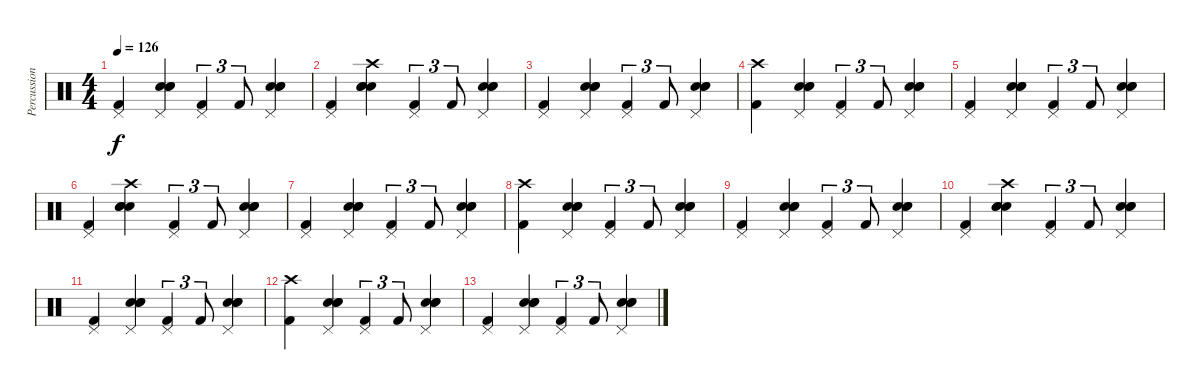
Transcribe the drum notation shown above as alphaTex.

\track ("Percussion" "Percussion") {instrument percussion}
\staff {score}
\articulation defaults
\ts (4 4)
\tempo 126
\clef neutral
\ks c
("Pedal Hi-Hat (hit)" "Kick (hit) 2").4{dy f} ("Pedal Hi-Hat (hit)" "Electric Snare (hit)" "Hand Clap (hit)" "Hand Clap (hit)").4 ("Pedal Hi-Hat (hit)" "Kick (hit) 2").4{tu (3 2)} "Kick (hit) 2".8{tu (3 2)} ("Pedal Hi-Hat (hit)" "Electric Snare (hit)" "Hand Clap (hit)" "Hand Clap (hit)").4 |
("Pedal Hi-Hat (hit)" "Kick (hit) 2").4 ("Crash high (hit)" "Electric Snare (hit)" "Hand Clap (hit)" "Hand Clap (hit)").4 ("Pedal Hi-Hat (hit)" "Kick (hit) 2").4{tu (3 2)} "Kick (hit) 2".8{tu (3 2)} ("Pedal Hi-Hat (hit)" "Electric Snare (hit)" "Hand Clap (hit)" "Hand Clap (hit)").4 |
("Pedal Hi-Hat (hit)" "Kick (hit) 2").4 ("Pedal Hi-Hat (hit)" "Electric Snare (hit)" "Hand Clap (hit)" "Hand Clap (hit)").4 ("Pedal Hi-Hat (hit)" "Kick (hit) 2").4{tu (3 2)} "Kick (hit) 2".8{tu (3 2)} ("Pedal Hi-Hat (hit)" "Electric Snare (hit)" "Hand Clap (hit)" "Hand Clap (hit)").4 |
("Crash high (hit)" "Kick (hit) 2").4 ("Pedal Hi-Hat (hit)" "Electric Snare (hit)" "Hand Clap (hit)" "Hand Clap (hit)").4 ("Pedal Hi-Hat (hit)" "Kick (hit) 2").4{tu (3 2)} "Kick (hit) 2".8{tu (3 2)} ("Pedal Hi-Hat (hit)" "Electric Snare (hit)" "Hand Clap (hit)" "Hand Clap (hit)").4 |
("Pedal Hi-Hat (hit)" "Kick (hit) 2").4{volume 6} ("Pedal Hi-Hat (hit)" "Electric Snare (hit)" "Hand Clap (hit)" "Hand Clap (hit)").4 ("Pedal Hi-Hat (hit)" "Kick (hit) 2").4{tu (3 2)} "Kick (hit) 2".8{tu (3 2)} ("Pedal Hi-Hat (hit)" "Electric Snare (hit)" "Hand Clap (hit)" "Hand Clap (hit)").4 |
("Pedal Hi-Hat (hit)" "Kick (hit) 2").4 ("Crash high (hit)" "Electric Snare (hit)" "Hand Clap (hit)" "Hand Clap (hit)").4 ("Pedal Hi-Hat (hit)" "Kick (hit) 2").4{tu (3 2)} "Kick (hit) 2".8{tu (3 2)} ("Pedal Hi-Hat (hit)" "Electric Snare (hit)" "Hand Clap (hit)" "Hand Clap (hit)").4 |
("Pedal Hi-Hat (hit)" "Kick (hit) 2").4 ("Pedal Hi-Hat (hit)" "Electric Snare (hit)" "Hand Clap (hit)" "Hand Clap (hit)").4 ("Pedal Hi-Hat (hit)" "Kick (hit) 2").4{tu (3 2)} "Kick (hit) 2".8{tu (3 2)} ("Pedal Hi-Hat (hit)" "Electric Snare (hit)" "Hand Clap (hit)" "Hand Clap (hit)").4 |
("Crash high (hit)" "Kick (hit) 2").4 ("Pedal Hi-Hat (hit)" "Electric Snare (hit)" "Hand Clap (hit)" "Hand Clap (hit)").4 ("Pedal Hi-Hat (hit)" "Kick (hit) 2").4{tu (3 2)} "Kick (hit) 2".8{tu (3 2)} ("Pedal Hi-Hat (hit)" "Electric Snare (hit)" "Hand Clap (hit)" "Hand Clap (hit)").4 |
("Pedal Hi-Hat (hit)" "Kick (hit) 2").4{volume 0} ("Pedal Hi-Hat (hit)" "Electric Snare (hit)" "Hand Clap (hit)" "Hand Clap (hit)").4 ("Pedal Hi-Hat (hit)" "Kick (hit) 2").4{tu (3 2)} "Kick (hit) 2".8{tu (3 2)} ("Pedal Hi-Hat (hit)" "Electric Snare (hit)" "Hand Clap (hit)" "Hand Clap (hit)").4 |
("Pedal Hi-Hat (hit)" "Kick (hit) 2").4 ("Crash high (hit)" "Electric Snare (hit)" "Hand Clap (hit)" "Hand Clap (hit)").4 ("Pedal Hi-Hat (hit)" "Kick (hit) 2").4{tu (3 2)} "Kick (hit) 2".8{tu (3 2)} ("Pedal Hi-Hat (hit)" "Electric Snare (hit)" "Hand Clap (hit)" "Hand Clap (hit)").4 |
("Pedal Hi-Hat (hit)" "Kick (hit) 2").4 ("Pedal Hi-Hat (hit)" "Electric Snare (hit)" "Hand Clap (hit)" "Hand Clap (hit)").4 ("Pedal Hi-Hat (hit)" "Kick (hit) 2").4{tu (3 2)} "Kick (hit) 2".8{tu (3 2)} ("Pedal Hi-Hat (hit)" "Electric Snare (hit)" "Hand Clap (hit)" "Hand Clap (hit)").4 |
("Crash high (hit)" "Kick (hit) 2").4 ("Pedal Hi-Hat (hit)" "Electric Snare (hit)" "Hand Clap (hit)" "Hand Clap (hit)").4 ("Pedal Hi-Hat (hit)" "Kick (hit) 2").4{tu (3 2)} "Kick (hit) 2".8{tu (3 2)} ("Pedal Hi-Hat (hit)" "Electric Snare (hit)" "Hand Clap (hit)" "Hand Clap (hit)").4 |
("Pedal Hi-Hat (hit)" "Kick (hit) 2").4 ("Pedal Hi-Hat (hit)" "Electric Snare (hit)" "Hand Clap (hit)" "Hand Clap (hit)").4 ("Pedal Hi-Hat (hit)" "Kick (hit) 2").4{tu (3 2)} "Kick (hit) 2".8{tu (3 2)} ("Pedal Hi-Hat (hit)" "Electric Snare (hit)" "Hand Clap (hit)" "Hand Clap (hit)").4
